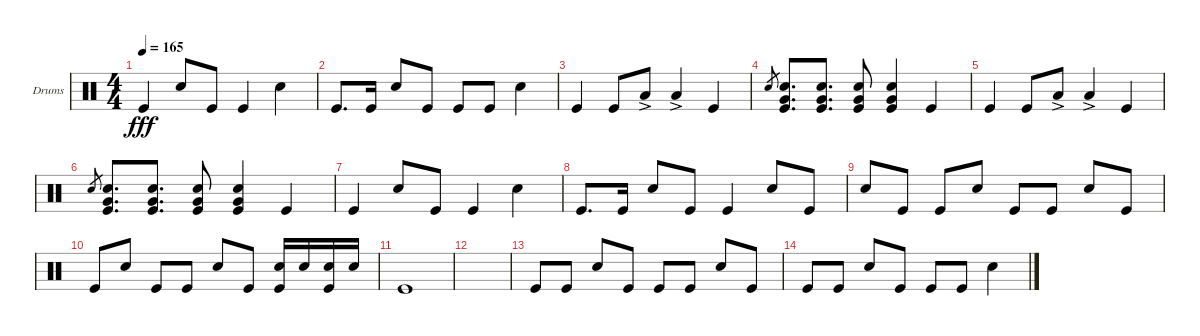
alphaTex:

\defaultSystemsLayout 4
\bracketExtendMode groupsimilarinstruments
\firstSystemTrackNameOrientation horizontal
\otherSystemsTrackNameOrientation horizontal
\track ("Helders" "Drums") {instrument percussion}
\staff {score}
\articulation defaults
\ts (4 4)
\tempo 165
\clef neutral
\ks c "Kick (hit)".4{dy fff} "Snare (hit) 2".8 "Kick (hit)".8 "Kick (hit)".4 "Snare (hit) 2".4
|
"Kick (hit)".8{d} "Kick (hit)".16 "Snare (hit) 2".8 "Kick (hit)".8 "Kick (hit)".8 "Kick (hit)".8 "Snare (hit) 2".4 |
"Kick (hit)".4 "Kick (hit)".8 "Low Tom (hit)"{ac}.8 "Low Tom (hit)"{ac}.4 "Kick (hit)".4 |
"Snare (hit) 2".8{gr} ("Snare (hit) 2" "Very Low Tom (hit)" "Kick (hit)").8{d} ("Snare (hit) 2" "Very Low Tom (hit)" "Kick (hit)").8{d} ("Snare (hit) 2" "Very Low Tom (hit)" "Kick (hit)").8 ("Snare (hit) 2" "Very Low Tom (hit)" "Kick (hit)").4 "Kick (hit)".4 |
"Kick (hit)".4 "Kick (hit)".8 "Low Tom (hit)"{ac}.8 "Low Tom (hit)"{ac}.4 "Kick (hit)".4 |
"Snare (hit) 2".8{gr} ("Snare (hit) 2" "Very Low Tom (hit)" "Kick (hit)").8{d} ("Snare (hit) 2" "Very Low Tom (hit)" "Kick (hit)").8{d} ("Snare (hit) 2" "Very Low Tom (hit)" "Kick (hit)").8 ("Snare (hit) 2" "Very Low Tom (hit)" "Kick (hit)").4 "Kick (hit)".4 |
"Kick (hit)".4 "Snare (hit) 2".8 "Kick (hit)".8 "Kick (hit)".4 "Snare (hit) 2".4 |
"Kick (hit)".8{d} "Kick (hit)".16 "Snare (hit) 2".8 "Kick (hit)".8 "Kick (hit)".4 "Snare (hit) 2".8 "Kick (hit)".8 |
"Snare (hit) 2".8 "Kick (hit)".8 "Kick (hit)".8 "Snare (hit) 2".8 "Kick (hit)".8 "Kick (hit)".8 "Snare (hit) 2".8 "Kick (hit)".8 |
"Kick (hit)".8 "Snare (hit) 2".8 "Kick (hit)".8 "Kick (hit)".8 "Snare (hit) 2".8 "Kick (hit)".8 ("Snare (hit) 2" "Kick (hit)").16 "Snare (hit) 2".16 ("Snare (hit) 2" "Kick (hit)").16 "Snare (hit) 2".16 |
"Kick (hit)".1 |
|
"Kick (hit)".8 "Kick (hit)".8 "Snare (hit) 2".8 "Kick (hit)".8 "Kick (hit)".8 "Kick (hit)".8 "Snare (hit) 2".8 "Kick (hit)".8 |
"Kick (hit)".8 "Kick (hit)".8 "Snare (hit) 2".8 "Kick (hit)".8 "Kick (hit)".8 "Kick (hit)".8 "Snare (hit) 2".4
